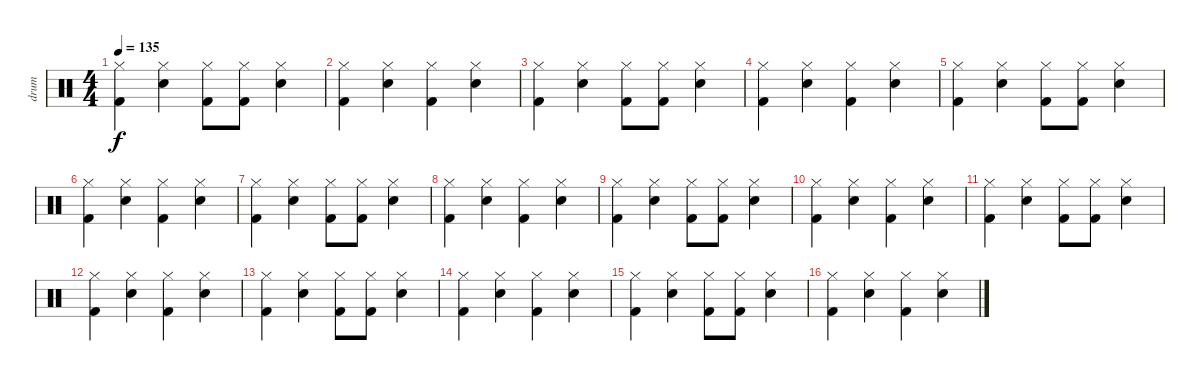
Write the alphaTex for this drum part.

\track ("drum" "drum") {instrument percussion}
\staff {score}
\articulation defaults
\ts (4 4)
\tempo 135
\clef neutral
\ks c
("Hi-Hat (closed)" "Kick (hit) 2").4{dy f} ("Hi-Hat (closed)" "Snare (hit) 2").4 ("Hi-Hat (closed)" "Kick (hit) 2").8 ("Hi-Hat (closed)" "Kick (hit) 2").8 ("Hi-Hat (closed)" "Snare (hit) 2").4 |
("Hi-Hat (closed)" "Kick (hit) 2").4 ("Hi-Hat (closed)" "Snare (hit) 2").4 ("Hi-Hat (closed)" "Kick (hit) 2").4 ("Hi-Hat (closed)" "Snare (hit) 2").4 |
("Hi-Hat (closed)" "Kick (hit) 2").4 ("Hi-Hat (closed)" "Snare (hit) 2").4 ("Hi-Hat (closed)" "Kick (hit) 2").8 ("Hi-Hat (closed)" "Kick (hit) 2").8 ("Hi-Hat (closed)" "Snare (hit) 2").4 |
("Hi-Hat (closed)" "Kick (hit) 2").4 ("Hi-Hat (closed)" "Snare (hit) 2").4 ("Hi-Hat (closed)" "Kick (hit) 2").4 ("Hi-Hat (closed)" "Snare (hit) 2").4 |
("Hi-Hat (closed)" "Kick (hit) 2").4 ("Hi-Hat (closed)" "Snare (hit) 2").4 ("Hi-Hat (closed)" "Kick (hit) 2").8 ("Hi-Hat (closed)" "Kick (hit) 2").8 ("Hi-Hat (closed)" "Snare (hit) 2").4 |
("Hi-Hat (closed)" "Kick (hit) 2").4 ("Hi-Hat (closed)" "Snare (hit) 2").4 ("Hi-Hat (closed)" "Kick (hit) 2").4 ("Hi-Hat (closed)" "Snare (hit) 2").4 |
("Hi-Hat (closed)" "Kick (hit) 2").4 ("Hi-Hat (closed)" "Snare (hit) 2").4 ("Hi-Hat (closed)" "Kick (hit) 2").8 ("Hi-Hat (closed)" "Kick (hit) 2").8 ("Hi-Hat (closed)" "Snare (hit) 2").4 |
("Hi-Hat (closed)" "Kick (hit) 2").4 ("Hi-Hat (closed)" "Snare (hit) 2").4 ("Hi-Hat (closed)" "Kick (hit) 2").4 ("Hi-Hat (closed)" "Snare (hit) 2").4 |
("Hi-Hat (closed)" "Kick (hit) 2").4 ("Hi-Hat (closed)" "Snare (hit) 2").4 ("Hi-Hat (closed)" "Kick (hit) 2").8 ("Hi-Hat (closed)" "Kick (hit) 2").8 ("Hi-Hat (closed)" "Snare (hit) 2").4 |
("Hi-Hat (closed)" "Kick (hit) 2").4 ("Hi-Hat (closed)" "Snare (hit) 2").4 ("Hi-Hat (closed)" "Kick (hit) 2").4 ("Hi-Hat (closed)" "Snare (hit) 2").4 |
("Hi-Hat (closed)" "Kick (hit) 2").4 ("Hi-Hat (closed)" "Snare (hit) 2").4 ("Hi-Hat (closed)" "Kick (hit) 2").8 ("Hi-Hat (closed)" "Kick (hit) 2").8 ("Hi-Hat (closed)" "Snare (hit) 2").4 |
("Hi-Hat (closed)" "Kick (hit) 2").4 ("Hi-Hat (closed)" "Snare (hit) 2").4 ("Hi-Hat (closed)" "Kick (hit) 2").4 ("Hi-Hat (closed)" "Snare (hit) 2").4 |
("Hi-Hat (closed)" "Kick (hit) 2").4 ("Hi-Hat (closed)" "Snare (hit) 2").4 ("Hi-Hat (closed)" "Kick (hit) 2").8 ("Hi-Hat (closed)" "Kick (hit) 2").8 ("Hi-Hat (closed)" "Snare (hit) 2").4 |
("Hi-Hat (closed)" "Kick (hit) 2").4 ("Hi-Hat (closed)" "Snare (hit) 2").4 ("Hi-Hat (closed)" "Kick (hit) 2").4 ("Hi-Hat (closed)" "Snare (hit) 2").4 |
("Hi-Hat (closed)" "Kick (hit) 2").4 ("Hi-Hat (closed)" "Snare (hit) 2").4 ("Hi-Hat (closed)" "Kick (hit) 2").8 ("Hi-Hat (closed)" "Kick (hit) 2").8 ("Hi-Hat (closed)" "Snare (hit) 2").4 |
("Hi-Hat (closed)" "Kick (hit) 2").4 ("Hi-Hat (closed)" "Snare (hit) 2").4 ("Hi-Hat (closed)" "Kick (hit) 2").4 ("Hi-Hat (closed)" "Snare (hit) 2").4
